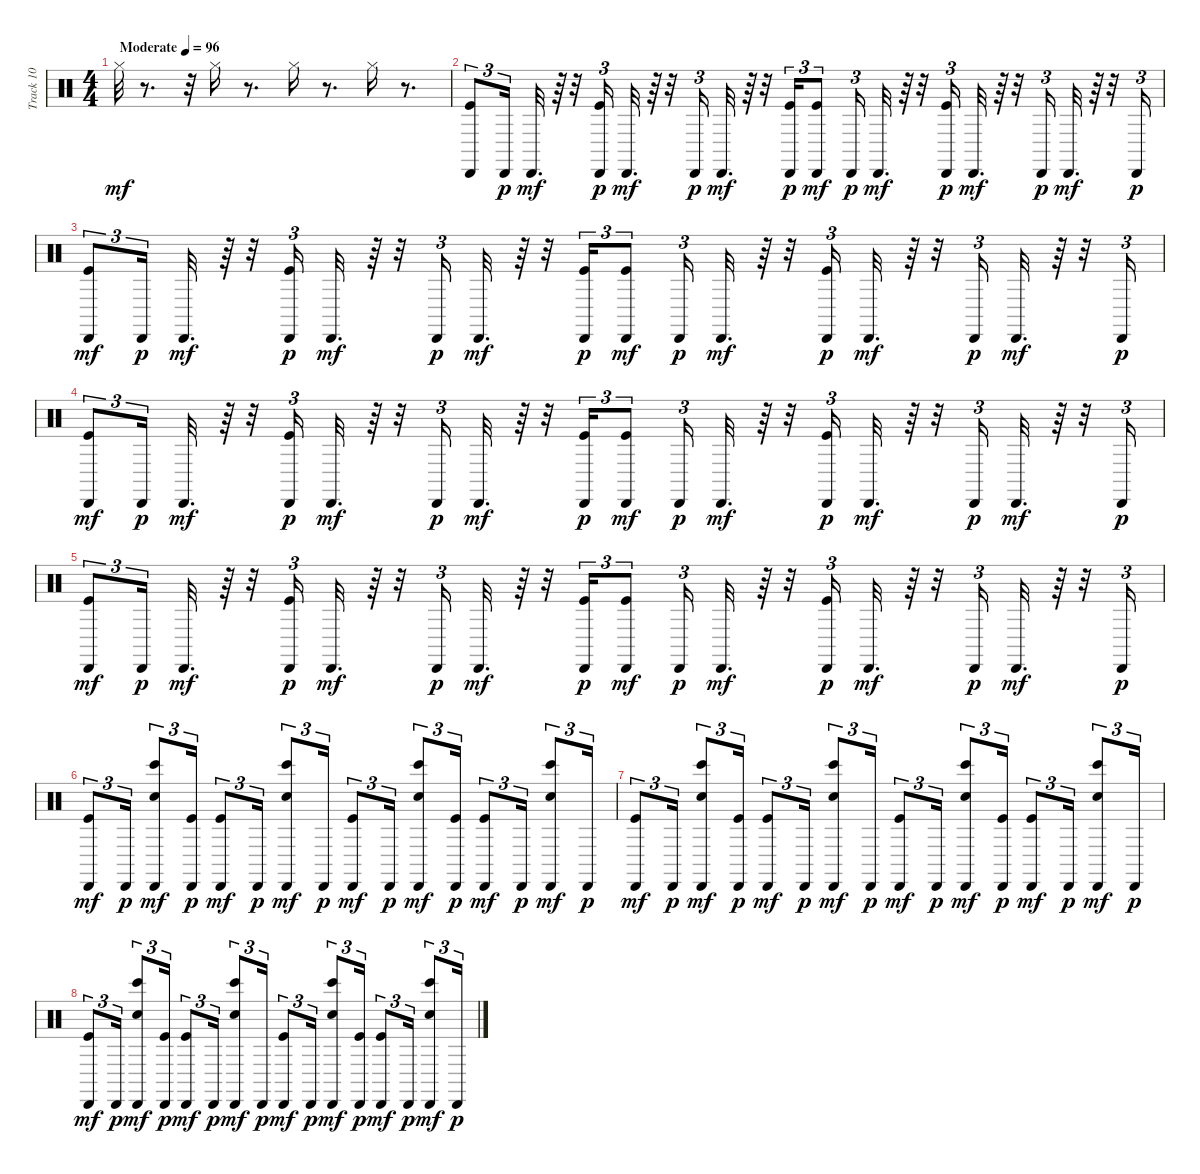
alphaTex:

\track ("Track 10" "Track 10") {instrument percussion}
\staff {score}
\articulation defaults
\ts (4 4)
\tempo (96 "Moderate")
\clef neutral
\ks c "Hi-Hat (closed)".32{dy mf}
r.8{d} r.32 "Hi-Hat (closed)".16 r.8{d} "Hi-Hat (closed)".16 r.8{d} "Hi-Hat (closed)".16 r.8{d} |
("Kick (hit)" "Cabasa (hit)").8{tu (3 2)} "Cabasa (hit)".16{tu (3 2) dy p} "Cabasa (hit)".32{d dy mf} r.64 r.32 ("Kick (hit)" "Cabasa (hit)").16{tu (3 2) dy p} "Cabasa (hit)".32{d dy mf} r.64 r.32 "Cabasa (hit)".16{tu (3 2) dy p} "Cabasa (hit)".32{d dy mf} r.64 r.32 ("Kick (hit)" "Cabasa (hit)").16{tu (3 2) dy p} ("Kick (hit)" "Cabasa (hit)").8{tu (3 2) dy mf} "Cabasa (hit)".16{tu (3 2) dy p} "Cabasa (hit)".32{d dy mf} r.64 r.32 ("Kick (hit)" "Cabasa (hit)").16{tu (3 2) dy p} "Cabasa (hit)".32{d dy mf} r.64 r.32 "Cabasa (hit)".16{tu (3 2) dy p} "Cabasa (hit)".32{d dy mf} r.64 r.32 "Cabasa (hit)".16{tu (3 2) dy p} |
("Kick (hit)" "Cabasa (hit)").8{tu (3 2) dy mf} "Cabasa (hit)".16{tu (3 2) dy p} "Cabasa (hit)".32{d dy mf} r.64 r.32 ("Kick (hit)" "Cabasa (hit)").16{tu (3 2) dy p} "Cabasa (hit)".32{d dy mf} r.64 r.32 "Cabasa (hit)".16{tu (3 2) dy p} "Cabasa (hit)".32{d dy mf} r.64 r.32 ("Kick (hit)" "Cabasa (hit)").16{tu (3 2) dy p} ("Kick (hit)" "Cabasa (hit)").8{tu (3 2) dy mf} "Cabasa (hit)".16{tu (3 2) dy p} "Cabasa (hit)".32{d dy mf} r.64 r.32 ("Kick (hit)" "Cabasa (hit)").16{tu (3 2) dy p} "Cabasa (hit)".32{d dy mf} r.64 r.32 "Cabasa (hit)".16{tu (3 2) dy p} "Cabasa (hit)".32{d dy mf} r.64 r.32 "Cabasa (hit)".16{tu (3 2) dy p} |
("Kick (hit)" "Cabasa (hit)").8{tu (3 2) dy mf} "Cabasa (hit)".16{tu (3 2) dy p} "Cabasa (hit)".32{d dy mf} r.64 r.32 ("Kick (hit)" "Cabasa (hit)").16{tu (3 2) dy p} "Cabasa (hit)".32{d dy mf} r.64 r.32 "Cabasa (hit)".16{tu (3 2) dy p} "Cabasa (hit)".32{d dy mf} r.64 r.32 ("Kick (hit)" "Cabasa (hit)").16{tu (3 2) dy p} ("Kick (hit)" "Cabasa (hit)").8{tu (3 2) dy mf} "Cabasa (hit)".16{tu (3 2) dy p} "Cabasa (hit)".32{d dy mf} r.64 r.32 ("Kick (hit)" "Cabasa (hit)").16{tu (3 2) dy p} "Cabasa (hit)".32{d dy mf} r.64 r.32 "Cabasa (hit)".16{tu (3 2) dy p} "Cabasa (hit)".32{d dy mf} r.64 r.32 "Cabasa (hit)".16{tu (3 2) dy p} |
("Kick (hit)" "Cabasa (hit)").8{tu (3 2) dy mf} "Cabasa (hit)".16{tu (3 2) dy p} "Cabasa (hit)".32{d dy mf} r.64 r.32 ("Kick (hit)" "Cabasa (hit)").16{tu (3 2) dy p} "Cabasa (hit)".32{d dy mf} r.64 r.32 "Cabasa (hit)".16{tu (3 2) dy p} "Cabasa (hit)".32{d dy mf} r.64 r.32 ("Kick (hit)" "Cabasa (hit)").16{tu (3 2) dy p} ("Kick (hit)" "Cabasa (hit)").8{tu (3 2) dy mf} "Cabasa (hit)".16{tu (3 2) dy p} "Cabasa (hit)".32{d dy mf} r.64 r.32 ("Kick (hit)" "Cabasa (hit)").16{tu (3 2) dy p} "Cabasa (hit)".32{d dy mf} r.64 r.32 "Cabasa (hit)".16{tu (3 2) dy p} "Cabasa (hit)".32{d dy mf} r.64 r.32 "Cabasa (hit)".16{tu (3 2) dy p} |
("Kick (hit)" "Cabasa (hit)").8{tu (3 2) dy mf} "Cabasa (hit)".16{tu (3 2) dy p} ("Bongo High (hit)" "Hand Clap (hit)" "Cabasa (hit)").8{tu (3 2) dy mf} ("Kick (hit)" "Cabasa (hit)").16{tu (3 2) dy p} ("Kick (hit)" "Cabasa (hit)").8{tu (3 2) dy mf} "Cabasa (hit)".16{tu (3 2) dy p} ("Bongo High (hit)" "Hand Clap (hit)" "Cabasa (hit)").8{tu (3 2) dy mf} "Cabasa (hit)".16{tu (3 2) dy p} ("Kick (hit)" "Cabasa (hit)").8{tu (3 2) dy mf} "Cabasa (hit)".16{tu (3 2) dy p} ("Bongo High (hit)" "Hand Clap (hit)" "Cabasa (hit)").8{tu (3 2) dy mf} ("Kick (hit)" "Cabasa (hit)").16{tu (3 2) dy p} ("Kick (hit)" "Cabasa (hit)").8{tu (3 2) dy mf} "Cabasa (hit)".16{tu (3 2) dy p} ("Bongo High (hit)" "Hand Clap (hit)" "Cabasa (hit)").8{tu (3 2) dy mf} "Cabasa (hit)".16{tu (3 2) dy p} |
("Kick (hit)" "Cabasa (hit)").8{tu (3 2) dy mf} "Cabasa (hit)".16{tu (3 2) dy p} ("Bongo High (hit)" "Hand Clap (hit)" "Cabasa (hit)").8{tu (3 2) dy mf} ("Kick (hit)" "Cabasa (hit)").16{tu (3 2) dy p} ("Kick (hit)" "Cabasa (hit)").8{tu (3 2) dy mf} "Cabasa (hit)".16{tu (3 2) dy p} ("Bongo High (hit)" "Hand Clap (hit)" "Cabasa (hit)").8{tu (3 2) dy mf} "Cabasa (hit)".16{tu (3 2) dy p} ("Kick (hit)" "Cabasa (hit)").8{tu (3 2) dy mf} "Cabasa (hit)".16{tu (3 2) dy p} ("Bongo High (hit)" "Hand Clap (hit)" "Cabasa (hit)").8{tu (3 2) dy mf} ("Kick (hit)" "Cabasa (hit)").16{tu (3 2) dy p} ("Kick (hit)" "Cabasa (hit)").8{tu (3 2) dy mf} "Cabasa (hit)".16{tu (3 2) dy p} ("Bongo High (hit)" "Hand Clap (hit)" "Cabasa (hit)").8{tu (3 2) dy mf} "Cabasa (hit)".16{tu (3 2) dy p} |
("Kick (hit)" "Cabasa (hit)").8{tu (3 2) dy mf} "Cabasa (hit)".16{tu (3 2) dy p} ("Bongo High (hit)" "Hand Clap (hit)" "Cabasa (hit)").8{tu (3 2) dy mf} ("Kick (hit)" "Cabasa (hit)").16{tu (3 2) dy p} ("Kick (hit)" "Cabasa (hit)").8{tu (3 2) dy mf} "Cabasa (hit)".16{tu (3 2) dy p} ("Bongo High (hit)" "Hand Clap (hit)" "Cabasa (hit)").8{tu (3 2) dy mf} "Cabasa (hit)".16{tu (3 2) dy p} ("Kick (hit)" "Cabasa (hit)").8{tu (3 2) dy mf} "Cabasa (hit)".16{tu (3 2) dy p} ("Bongo High (hit)" "Hand Clap (hit)" "Cabasa (hit)").8{tu (3 2) dy mf} ("Kick (hit)" "Cabasa (hit)").16{tu (3 2) dy p} ("Kick (hit)" "Cabasa (hit)").8{tu (3 2) dy mf} "Cabasa (hit)".16{tu (3 2) dy p} ("Bongo High (hit)" "Hand Clap (hit)" "Cabasa (hit)").8{tu (3 2) dy mf} "Cabasa (hit)".16{tu (3 2) dy p}
